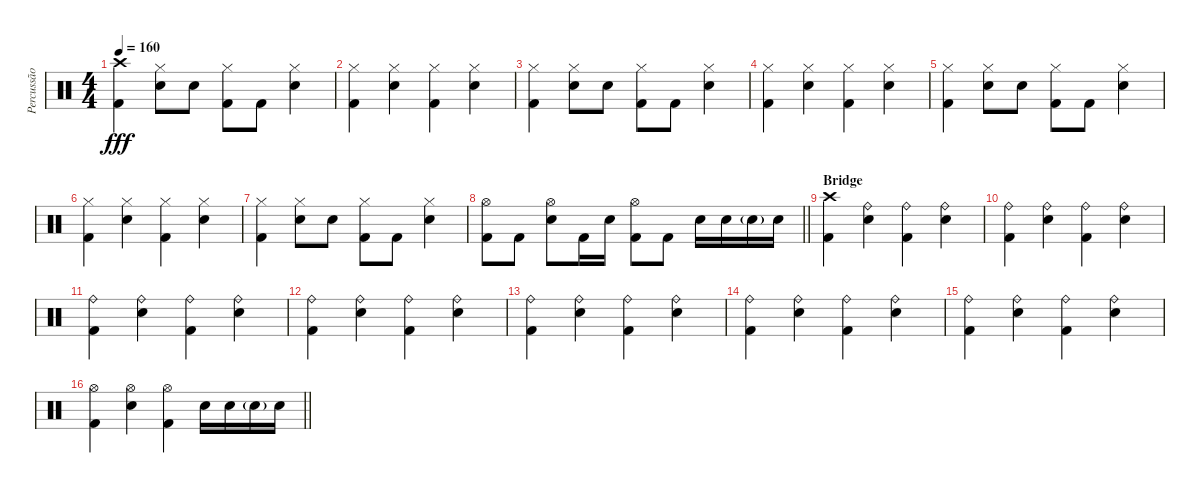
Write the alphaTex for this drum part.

\track ("Percussão" "Percussão") {instrument percussion}
\staff {score}
\articulation defaults
\ts (4 4)
\tempo 160
\clef neutral
\ks c
("Crash high (hit)" "Kick (hit) 2").4{dy fff} ("Hi-Hat (closed)" "Electric Snare (hit)").8 "Electric Snare (hit)".8 ("Hi-Hat (closed)" "Kick (hit) 2").8 "Kick (hit) 2".8 ("Hi-Hat (closed)" "Electric Snare (hit)").4 |
("Hi-Hat (closed)" "Kick (hit) 2").4 ("Hi-Hat (closed)" "Electric Snare (hit)").4 ("Hi-Hat (closed)" "Kick (hit) 2").4 ("Hi-Hat (closed)" "Electric Snare (hit)").4 |
("Hi-Hat (closed)" "Kick (hit) 2").4 ("Hi-Hat (closed)" "Electric Snare (hit)").8 "Electric Snare (hit)".8 ("Hi-Hat (closed)" "Kick (hit) 2").8 "Kick (hit) 2".8 ("Hi-Hat (closed)" "Electric Snare (hit)").4 |
("Hi-Hat (closed)" "Kick (hit) 2").4 ("Hi-Hat (closed)" "Electric Snare (hit)").4 ("Hi-Hat (closed)" "Kick (hit) 2").4 ("Hi-Hat (closed)" "Electric Snare (hit)").4 |
("Hi-Hat (closed)" "Kick (hit) 2").4 ("Hi-Hat (closed)" "Electric Snare (hit)").8 "Electric Snare (hit)".8 ("Hi-Hat (closed)" "Kick (hit) 2").8 "Kick (hit) 2".8 ("Hi-Hat (closed)" "Electric Snare (hit)").4 |
("Hi-Hat (closed)" "Kick (hit) 2").4 ("Hi-Hat (closed)" "Electric Snare (hit)").4 ("Hi-Hat (closed)" "Kick (hit) 2").4 ("Hi-Hat (closed)" "Electric Snare (hit)").4 |
("Hi-Hat (closed)" "Kick (hit) 2").4 ("Hi-Hat (closed)" "Electric Snare (hit)").8 "Electric Snare (hit)".8 ("Hi-Hat (closed)" "Kick (hit) 2").8 "Kick (hit) 2".8 ("Hi-Hat (closed)" "Electric Snare (hit)").4 |
\barLineRight lightlight
("Hi-Hat (open)" "Kick (hit) 2").8 "Kick (hit) 2".8 ("Hi-Hat (open)" "Electric Snare (hit)").8 "Kick (hit) 2".16 "Electric Snare (hit)".16 ("Hi-Hat (open)" "Kick (hit) 2").8 "Kick (hit) 2".8 "Electric Snare (hit)".16 "Electric Snare (hit)".16 "Electric Snare (hit)"{g}.16 "Electric Snare (hit)".16 |
\section ("" "Bridge")
("Crash high (hit)" "Kick (hit) 2").4 ("Ride (bell)" "Electric Snare (hit)").4 ("Ride (bell)" "Kick (hit) 2").4 ("Ride (bell)" "Electric Snare (hit)").4 |
("Ride (bell)" "Kick (hit) 2").4 ("Ride (bell)" "Electric Snare (hit)").4 ("Ride (bell)" "Kick (hit) 2").4 ("Ride (bell)" "Electric Snare (hit)").4 |
("Ride (bell)" "Kick (hit) 2").4 ("Ride (bell)" "Electric Snare (hit)").4 ("Ride (bell)" "Kick (hit) 2").4 ("Ride (bell)" "Electric Snare (hit)").4 |
("Ride (bell)" "Kick (hit) 2").4 ("Ride (bell)" "Electric Snare (hit)").4 ("Ride (bell)" "Kick (hit) 2").4 ("Ride (bell)" "Electric Snare (hit)").4 |
("Ride (bell)" "Kick (hit) 2").4 ("Ride (bell)" "Electric Snare (hit)").4 ("Ride (bell)" "Kick (hit) 2").4 ("Ride (bell)" "Electric Snare (hit)").4 |
("Ride (bell)" "Kick (hit) 2").4 ("Ride (bell)" "Electric Snare (hit)").4 ("Ride (bell)" "Kick (hit) 2").4 ("Ride (bell)" "Electric Snare (hit)").4 |
("Ride (bell)" "Kick (hit) 2").4 ("Ride (bell)" "Electric Snare (hit)").4 ("Ride (bell)" "Kick (hit) 2").4 ("Ride (bell)" "Electric Snare (hit)").4 |
\barLineRight lightlight
("Hi-Hat (open)" "Kick (hit) 2").4 ("Hi-Hat (open)" "Electric Snare (hit)").4 ("Hi-Hat (open)" "Kick (hit) 2").4 "Electric Snare (hit)".16 "Electric Snare (hit)".16 "Electric Snare (hit)"{g}.16 "Electric Snare (hit)".16
